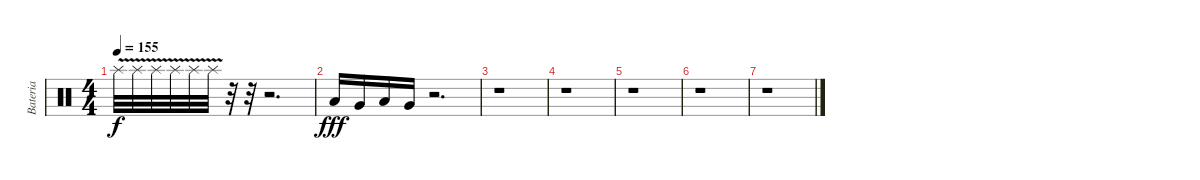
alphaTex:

\track ("Bateria" "Bateria") {instrument percussion}
\staff {score}
\articulation defaults
\ts (4 4)
\tempo 155
\clef neutral
\ks c "Splash (hit)"{v}.32{dy f} "Splash (hit)"{v}.32 "Splash (hit)"{v}.32 "Splash (hit)"{v}.32 "Splash (hit)"{v}.32 "Splash (hit)"{v}.32
r.32 r.32 r.2{d} |
"Low Tom (hit)".16{dy fff} "Very Low Tom (hit)".16 "Low Tom (hit)".16 "Very Low Tom (hit)".16 r.2{d} |
r.1 |
r.1 |
r.1 |
r.1 |
r.1
